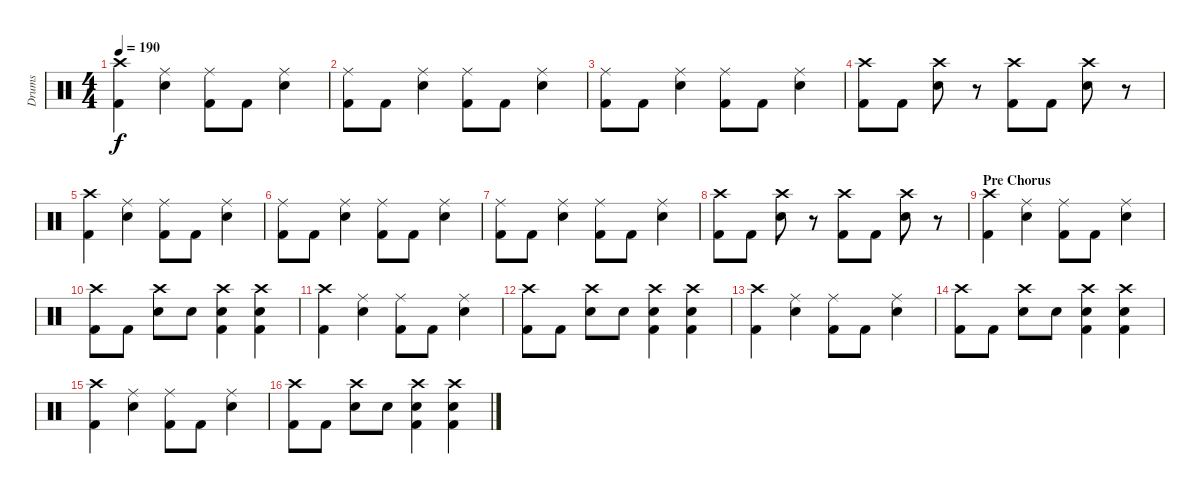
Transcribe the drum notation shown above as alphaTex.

\track ("Drums" "Drums") {instrument percussion}
\staff {score}
\articulation defaults
\ts (4 4)
\tempo 190
\clef neutral
\ks c
("Crash high (hit)" "Kick (hit) 2").4{dy f} ("Ride (middle)" "Snare (hit) 2").4 ("Ride (middle)" "Kick (hit) 2").8 "Kick (hit) 2".8 ("Ride (middle)" "Snare (hit) 2").4 |
("Ride (middle)" "Kick (hit) 2").8 "Kick (hit) 2".8 ("Ride (middle)" "Snare (hit) 2").4 ("Ride (middle)" "Kick (hit) 2").8 "Kick (hit) 2".8 ("Ride (middle)" "Snare (hit) 2").4 |
("Ride (middle)" "Kick (hit) 2").8 "Kick (hit) 2".8 ("Ride (middle)" "Snare (hit) 2").4 ("Ride (middle)" "Kick (hit) 2").8 "Kick (hit) 2".8 ("Ride (middle)" "Snare (hit) 2").4 |
("Crash high (hit)" "Kick (hit) 2").8 "Kick (hit) 2".8 ("Crash high (hit)" "Snare (hit) 2").8 r.8 ("Crash high (hit)" "Kick (hit) 2").8 "Kick (hit) 2".8 ("Crash high (hit)" "Snare (hit) 2").8 r.8 |
("Crash high (hit)" "Kick (hit) 2").4 ("Ride (middle)" "Snare (hit) 2").4 ("Ride (middle)" "Kick (hit) 2").8 "Kick (hit) 2".8 ("Ride (middle)" "Snare (hit) 2").4 |
("Ride (middle)" "Kick (hit) 2").8 "Kick (hit) 2".8 ("Ride (middle)" "Snare (hit) 2").4 ("Ride (middle)" "Kick (hit) 2").8 "Kick (hit) 2".8 ("Ride (middle)" "Snare (hit) 2").4 |
("Ride (middle)" "Kick (hit) 2").8 "Kick (hit) 2".8 ("Ride (middle)" "Snare (hit) 2").4 ("Ride (middle)" "Kick (hit) 2").8 "Kick (hit) 2".8 ("Ride (middle)" "Snare (hit) 2").4 |
("Crash high (hit)" "Kick (hit) 2").8 "Kick (hit) 2".8 ("Crash high (hit)" "Snare (hit) 2").8 r.8 ("Crash high (hit)" "Kick (hit) 2").8 "Kick (hit) 2".8 ("Crash high (hit)" "Snare (hit) 2").8 r.8 |
\section ("" "Pre Chorus")
("Crash high (hit)" "Kick (hit) 2").4 ("Ride (middle)" "Snare (hit) 2").4 ("Ride (middle)" "Kick (hit) 2").8 "Kick (hit) 2".8 ("Ride (middle)" "Snare (hit) 2").4 |
("Crash high (hit)" "Kick (hit) 2").8 "Kick (hit) 2".8 ("Crash high (hit)" "Snare (hit) 2").8 "Snare (hit) 2".8 ("Crash high (hit)" "Snare (hit) 2" "Kick (hit) 2").4 ("Crash high (hit)" "Snare (hit) 2" "Kick (hit) 2").4 |
("Crash high (hit)" "Kick (hit) 2").4 ("Ride (middle)" "Snare (hit) 2").4 ("Ride (middle)" "Kick (hit) 2").8 "Kick (hit) 2".8 ("Ride (middle)" "Snare (hit) 2").4 |
("Crash high (hit)" "Kick (hit) 2").8 "Kick (hit) 2".8 ("Crash high (hit)" "Snare (hit) 2").8 "Snare (hit) 2".8 ("Crash high (hit)" "Snare (hit) 2" "Kick (hit) 2").4 ("Crash high (hit)" "Snare (hit) 2" "Kick (hit) 2").4 |
("Crash high (hit)" "Kick (hit) 2").4 ("Ride (middle)" "Snare (hit) 2").4 ("Ride (middle)" "Kick (hit) 2").8 "Kick (hit) 2".8 ("Ride (middle)" "Snare (hit) 2").4 |
("Crash high (hit)" "Kick (hit) 2").8 "Kick (hit) 2".8 ("Crash high (hit)" "Snare (hit) 2").8 "Snare (hit) 2".8 ("Crash high (hit)" "Snare (hit) 2" "Kick (hit) 2").4 ("Crash high (hit)" "Snare (hit) 2" "Kick (hit) 2").4 |
("Crash high (hit)" "Kick (hit) 2").4 ("Ride (middle)" "Snare (hit) 2").4 ("Ride (middle)" "Kick (hit) 2").8 "Kick (hit) 2".8 ("Ride (middle)" "Snare (hit) 2").4 |
("Crash high (hit)" "Kick (hit) 2").8 "Kick (hit) 2".8 ("Crash high (hit)" "Snare (hit) 2").8 "Snare (hit) 2".8 ("Crash high (hit)" "Snare (hit) 2" "Kick (hit) 2").4 ("Crash high (hit)" "Snare (hit) 2" "Kick (hit) 2").4
